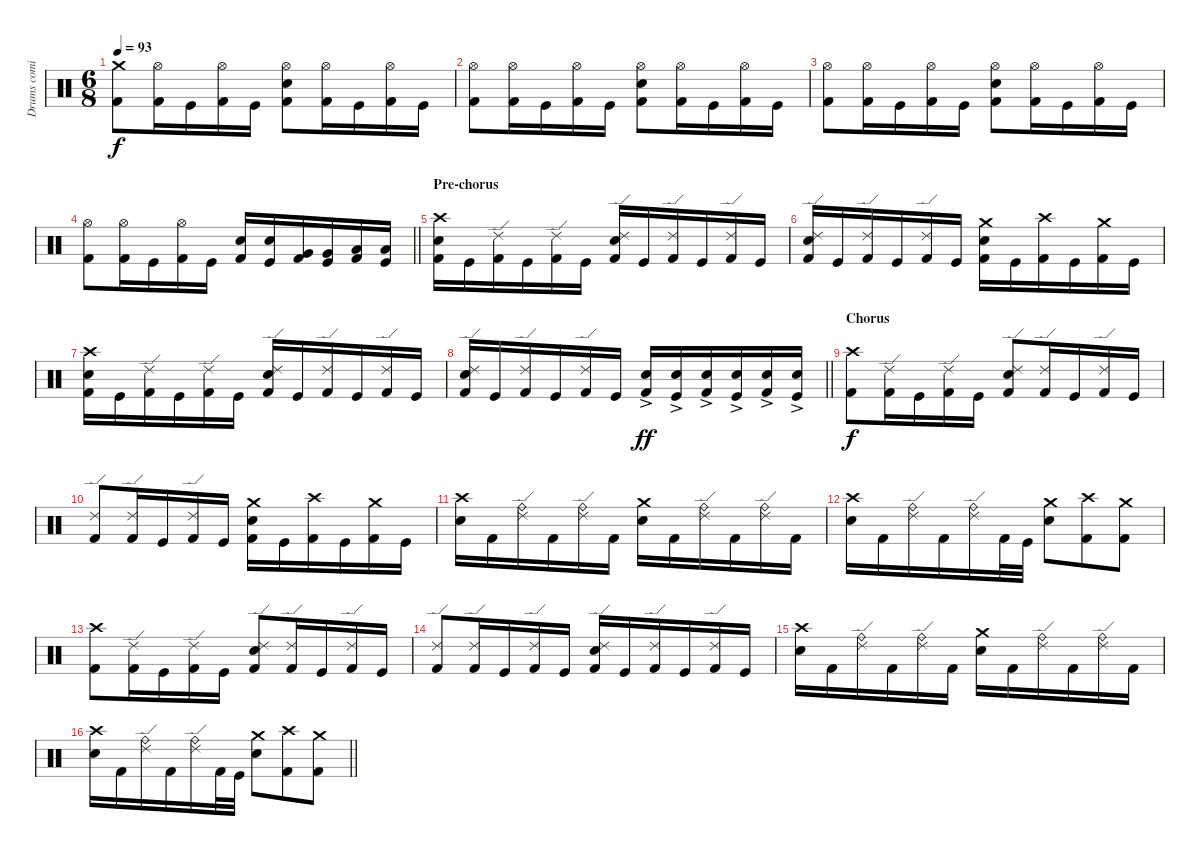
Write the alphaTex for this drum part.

\track ("Drums coming soon" "Drums comi") {instrument percussion}
\staff {score}
\articulation defaults
\ts (6 8)
\tempo 93
\clef neutral
\ks c
("Crash medium (hit)" "Kick (hit) 2").8{dy f} ("Hi-Hat (open)" "Kick (hit) 2").16 "Kick (hit)".16 ("Hi-Hat (open)" "Kick (hit) 2").16 "Kick (hit)".16 ("Hi-Hat (open)" "Snare (hit) 2" "Kick (hit) 2").8 ("Hi-Hat (open)" "Kick (hit) 2").16 "Kick (hit)".16 ("Hi-Hat (open)" "Kick (hit) 2").16 "Kick (hit)".16 |
("Hi-Hat (open)" "Kick (hit) 2").8 ("Hi-Hat (open)" "Kick (hit) 2").16 "Kick (hit)".16 ("Hi-Hat (open)" "Kick (hit) 2").16 "Kick (hit)".16 ("Hi-Hat (open)" "Snare (hit) 2" "Kick (hit) 2").8 ("Hi-Hat (open)" "Kick (hit) 2").16 "Kick (hit)".16 ("Hi-Hat (open)" "Kick (hit) 2").16 "Kick (hit)".16 |
("Hi-Hat (open)" "Kick (hit) 2").8 ("Hi-Hat (open)" "Kick (hit) 2").16 "Kick (hit)".16 ("Hi-Hat (open)" "Kick (hit) 2").16 "Kick (hit)".16 ("Hi-Hat (open)" "Snare (hit) 2" "Kick (hit) 2").8 ("Hi-Hat (open)" "Kick (hit) 2").16 "Kick (hit)".16 ("Hi-Hat (open)" "Kick (hit) 2").16 "Kick (hit)".16 |
\barLineRight lightlight
("Hi-Hat (open)" "Kick (hit) 2").8 ("Hi-Hat (open)" "Kick (hit) 2").16 "Kick (hit)".16 ("Hi-Hat (open)" "Kick (hit) 2").16 "Kick (hit)".16 ("Snare (hit) 2" "Kick (hit) 2").16 ("Snare (hit) 2" "Kick (hit)").16 ("Very Low Tom (hit)" "Kick (hit) 2").16 ("Very Low Tom (hit)" "Kick (hit)").16 ("Low Floor Tom (hit)" "Kick (hit) 2").16 ("Low Floor Tom (hit)" "Kick (hit)").16 |
\section ("" "Pre-chorus")
("Crash high (hit)" "Snare (hit) 2" "Kick (hit) 2").16 "Kick (hit)".16 ("Ride (edge) 2" "Kick (hit) 2").16 "Kick (hit)".16 ("Ride (edge) 2" "Kick (hit) 2").16 "Kick (hit)".16 ("Ride (edge) 2" "Snare (hit) 2" "Kick (hit) 2").16 "Kick (hit)".16 ("Ride (edge) 2" "Kick (hit) 2").16 "Kick (hit)".16 ("Ride (edge) 2" "Kick (hit) 2").16 "Kick (hit)".16 |
("Ride (edge) 2" "Snare (hit) 2" "Kick (hit) 2").16 "Kick (hit)".16 ("Ride (edge) 2" "Kick (hit) 2").16 "Kick (hit)".16 ("Ride (edge) 2" "Kick (hit) 2").16 "Kick (hit)".16 ("Crash medium (hit)" "Snare (hit) 2" "Kick (hit) 2").16 "Kick (hit)".16 ("Crash high (hit)" "Kick (hit) 2").16 "Kick (hit)".16 ("Crash medium (hit)" "Kick (hit) 2").16 "Kick (hit)".16 |
("Crash high (hit)" "Snare (hit) 2" "Kick (hit) 2").16 "Kick (hit)".16 ("Ride (edge) 2" "Kick (hit) 2").16 "Kick (hit)".16 ("Ride (edge) 2" "Kick (hit) 2").16 "Kick (hit)".16 ("Ride (edge) 2" "Snare (hit) 2" "Kick (hit) 2").16 "Kick (hit)".16 ("Ride (edge) 2" "Kick (hit) 2").16 "Kick (hit)".16 ("Ride (edge) 2" "Kick (hit) 2").16 "Kick (hit)".16 |
\barLineRight lightlight
("Ride (edge) 2" "Snare (hit) 2" "Kick (hit) 2").16 "Kick (hit)".16 ("Ride (edge) 2" "Kick (hit) 2").16 "Kick (hit)".16 ("Ride (edge) 2" "Kick (hit) 2").16 "Kick (hit)".16 ("Snare (hit) 2"{ac} "Kick (hit) 2").16{dy ff} ("Snare (hit) 2"{ac} "Kick (hit)").16 ("Snare (hit) 2"{ac} "Kick (hit) 2").16 ("Snare (hit) 2"{ac} "Kick (hit)").16 ("Snare (hit) 2"{ac} "Kick (hit) 2").16 ("Snare (hit) 2"{ac} "Kick (hit)").16 |
\section ("" "Chorus")
("Crash high (hit)" "Kick (hit) 2").8{dy f} ("Ride (edge) 2" "Kick (hit) 2").16 "Kick (hit)".16 ("Ride (edge) 2" "Kick (hit) 2").16 "Kick (hit)".16 ("Ride (edge) 2" "Snare (hit) 2" "Kick (hit) 2").8 ("Ride (edge) 2" "Kick (hit) 2").16 "Kick (hit)".16 ("Ride (edge) 2" "Kick (hit) 2").16 "Kick (hit)".16 |
("Ride (edge) 2" "Kick (hit) 2").8 ("Ride (edge) 2" "Kick (hit) 2").16 "Kick (hit)".16 ("Ride (edge) 2" "Kick (hit) 2").16 "Kick (hit)".16 ("Crash medium (hit)" "Snare (hit) 2" "Kick (hit) 2").16 "Kick (hit)".16 ("Crash high (hit)" "Kick (hit) 2").16 "Kick (hit)".16 ("Crash medium (hit)" "Kick (hit) 2").16 "Kick (hit)".16 |
("Crash high (hit)" "Snare (hit) 2").16 "Kick (hit) 2".16 ("Ride (edge) 2" "Ride (bell)").16 "Kick (hit) 2".16 ("Ride (edge) 2" "Ride (bell)").16 "Kick (hit) 2".16 ("Crash medium (hit)" "Snare (hit) 2").16 "Kick (hit) 2".16 ("Ride (edge) 2" "Ride (bell)").16 "Kick (hit) 2".16 ("Ride (edge) 2" "Ride (bell)").16 "Kick (hit) 2".16 |
("Crash high (hit)" "Snare (hit) 2").16 "Kick (hit) 2".16 ("Ride (edge) 2" "Ride (bell)").16 "Kick (hit) 2".16 ("Ride (edge) 2" "Ride (bell)").16 "Kick (hit) 2".32 "Kick (hit)".32 ("Crash medium (hit)" "Snare (hit) 2").8 ("Crash high (hit)" "Kick (hit) 2").8 ("Crash medium (hit)" "Kick (hit) 2").8 |
("Crash high (hit)" "Kick (hit) 2").8 ("Ride (edge) 2" "Kick (hit) 2").16 "Kick (hit)".16 ("Ride (edge) 2" "Kick (hit) 2").16 "Kick (hit)".16 ("Ride (edge) 2" "Snare (hit) 2" "Kick (hit) 2").8 ("Ride (edge) 2" "Kick (hit) 2").16 "Kick (hit)".16 ("Ride (edge) 2" "Kick (hit) 2").16 "Kick (hit)".16 |
("Ride (edge) 2" "Kick (hit) 2").8 ("Ride (edge) 2" "Kick (hit) 2").16 "Kick (hit)".16 ("Ride (edge) 2" "Kick (hit) 2").16 "Kick (hit)".16 ("Ride (edge) 2" "Snare (hit) 2" "Kick (hit) 2").16 "Kick (hit)".16 ("Ride (edge) 2" "Kick (hit) 2").16 "Kick (hit)".16 ("Ride (edge) 2" "Kick (hit) 2").16 "Kick (hit)".16 |
("Crash high (hit)" "Snare (hit) 2").16 "Kick (hit) 2".16 ("Ride (edge) 2" "Ride (bell)").16 "Kick (hit) 2".16 ("Ride (edge) 2" "Ride (bell)").16 "Kick (hit) 2".16 ("Crash medium (hit)" "Snare (hit) 2").16 "Kick (hit) 2".16 ("Ride (edge) 2" "Ride (bell)").16 "Kick (hit) 2".16 ("Ride (edge) 2" "Ride (bell)").16 "Kick (hit) 2".16 |
\barLineRight lightlight
("Crash high (hit)" "Snare (hit) 2").16 "Kick (hit) 2".16 ("Ride (edge) 2" "Ride (bell)").16 "Kick (hit) 2".16 ("Ride (edge) 2" "Ride (bell)").16 "Kick (hit) 2".32 "Kick (hit)".32 ("Crash medium (hit)" "Snare (hit) 2").8 ("Crash high (hit)" "Kick (hit) 2").8 ("Crash medium (hit)" "Kick (hit) 2").8
